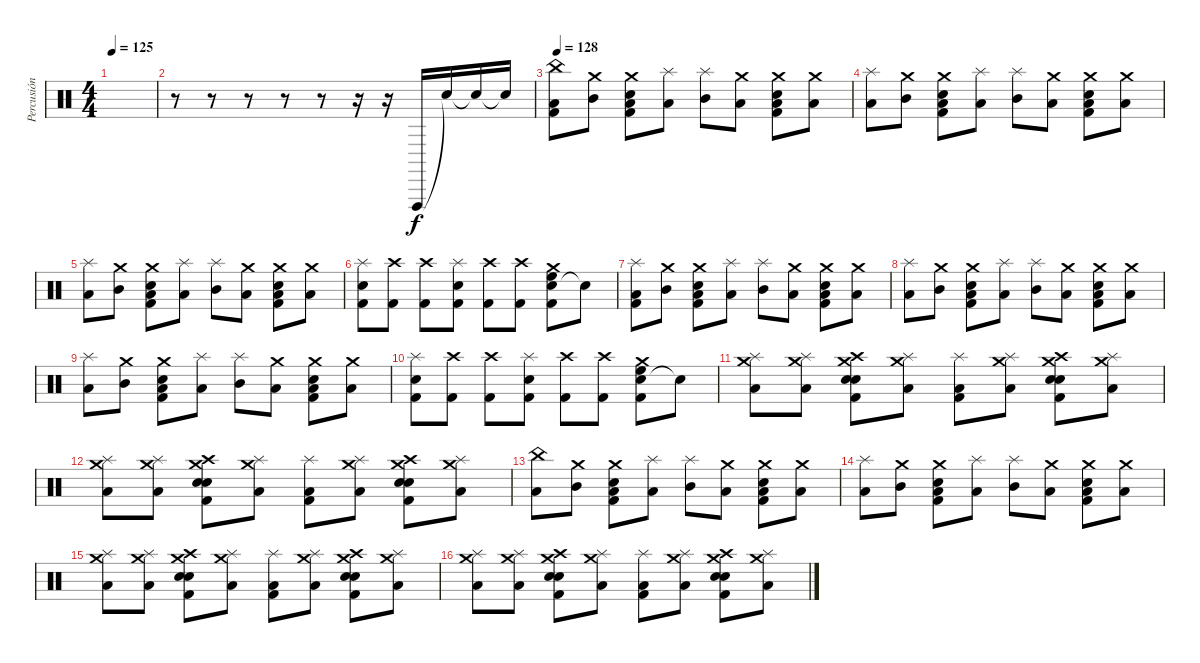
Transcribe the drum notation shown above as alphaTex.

\track ("Percusión" "Percusión") {instrument percussion}
\staff {score}
\articulation defaults
\ts (4 4)
\tempo 125
\clef neutral
\ks c
|
r.8 r.8 r.8 r.8 r.8 r.16 r.16 "Vibraslap (hit)".16{dy f} "Snare (hit)"{t}.16 "Snare (hit)"{t}.16 "Snare (hit)"{t}.16 |
\tempo 122
\tempo 128
("China (hit)" "Low Floor Tom (hit)" "Kick (hit) 2").8 ("Crash medium (hit)" "Mid Tom (hit)").8 ("Crash medium (hit)" "Low Floor Tom (hit)" "Electric Snare (hit)" "Kick (hit) 2").8 ("Splash (hit)" "Low Floor Tom (hit)").8 ("Splash (hit)" "Mid Tom (hit)").8 ("Crash medium (hit)" "Low Floor Tom (hit)").8 ("Crash medium (hit)" "Low Floor Tom (hit)" "Electric Snare (hit)" "Kick (hit) 2").8 ("Crash medium (hit)" "Low Floor Tom (hit)").8 |
("Splash (hit)" "Low Floor Tom (hit)").8 ("Crash medium (hit)" "Mid Tom (hit)").8 ("Crash medium (hit)" "Low Floor Tom (hit)" "Electric Snare (hit)" "Kick (hit) 2").8 ("Splash (hit)" "Low Floor Tom (hit)").8 ("Splash (hit)" "Mid Tom (hit)").8 ("Crash medium (hit)" "Low Floor Tom (hit)").8 ("Crash medium (hit)" "Low Floor Tom (hit)" "Electric Snare (hit)" "Kick (hit) 2").8 ("Crash medium (hit)" "Low Floor Tom (hit)").8 |
("Splash (hit)" "Low Floor Tom (hit)").8 ("Crash medium (hit)" "Mid Tom (hit)").8 ("Crash medium (hit)" "Low Floor Tom (hit)" "Electric Snare (hit)" "Kick (hit) 2").8 ("Splash (hit)" "Low Floor Tom (hit)").8 ("Splash (hit)" "Mid Tom (hit)").8 ("Crash medium (hit)" "Low Floor Tom (hit)").8 ("Crash medium (hit)" "Low Floor Tom (hit)" "Electric Snare (hit)" "Kick (hit) 2").8 ("Crash medium (hit)" "Low Floor Tom (hit)").8 |
("Electric Snare (hit)" "Kick (hit) 2" "Splash (hit)").8 ("Kick (hit) 2" "Crash high (hit)").8 ("Kick (hit) 2" "Crash high (hit)").8 ("Electric Snare (hit)" "Kick (hit) 2" "Splash (hit)").8 ("Kick (hit) 2" "Crash high (hit)").8 ("Kick (hit) 2" "Crash high (hit)").8 ("Electric Snare (hit)" "Kick (hit) 2" "Crash medium (hit)" "High Floor Tom (hit)").8 "Electric Snare (hit)"{t}.8 |
("Splash (hit)" "Low Floor Tom (hit)" "Kick (hit) 2").8 ("Crash medium (hit)" "Mid Tom (hit)").8 ("Crash medium (hit)" "Low Floor Tom (hit)" "Electric Snare (hit)" "Kick (hit) 2").8 ("Splash (hit)" "Low Floor Tom (hit)").8 ("Splash (hit)" "Mid Tom (hit)").8 ("Crash medium (hit)" "Low Floor Tom (hit)").8 ("Crash medium (hit)" "Low Floor Tom (hit)" "Electric Snare (hit)" "Kick (hit) 2").8 ("Crash medium (hit)" "Low Floor Tom (hit)").8 |
("Splash (hit)" "Low Floor Tom (hit)").8 ("Crash medium (hit)" "Mid Tom (hit)").8 ("Crash medium (hit)" "Low Floor Tom (hit)" "Electric Snare (hit)" "Kick (hit) 2").8 ("Splash (hit)" "Low Floor Tom (hit)").8 ("Splash (hit)" "Mid Tom (hit)").8 ("Crash medium (hit)" "Low Floor Tom (hit)").8 ("Crash medium (hit)" "Low Floor Tom (hit)" "Electric Snare (hit)" "Kick (hit) 2").8 ("Crash medium (hit)" "Low Floor Tom (hit)").8 |
("Splash (hit)" "Low Floor Tom (hit)").8 ("Crash medium (hit)" "Mid Tom (hit)").8 ("Crash medium (hit)" "Low Floor Tom (hit)" "Electric Snare (hit)" "Kick (hit) 2").8 ("Splash (hit)" "Low Floor Tom (hit)").8 ("Splash (hit)" "Mid Tom (hit)").8 ("Crash medium (hit)" "Low Floor Tom (hit)").8 ("Crash medium (hit)" "Low Floor Tom (hit)" "Electric Snare (hit)" "Kick (hit) 2").8 ("Crash medium (hit)" "Low Floor Tom (hit)").8 |
("Electric Snare (hit)" "Kick (hit) 2" "Splash (hit)").8 ("Kick (hit) 2" "Crash high (hit)").8 ("Kick (hit) 2" "Crash high (hit)").8 ("Electric Snare (hit)" "Kick (hit) 2" "Splash (hit)").8 ("Kick (hit) 2" "Crash high (hit)").8 ("Kick (hit) 2" "Crash high (hit)").8 ("Electric Snare (hit)" "Kick (hit) 2" "Crash medium (hit)" "High Floor Tom (hit)").8 "Electric Snare (hit)"{t}.8 |
("Splash (hit)" "Crash medium (hit)" "Low Floor Tom (hit)").8 ("Splash (hit)" "Crash medium (hit)" "Low Floor Tom (hit)").8 ("Crash high (hit)" "Crash medium (hit)" "Kick (hit) 2" "Electric Snare (hit)" "Snare (hit) 2").8 ("Splash (hit)" "Crash medium (hit)" "Low Floor Tom (hit)").8 ("Splash (hit)" "Kick (hit) 2" "Low Floor Tom (hit)").8 ("Splash (hit)" "Crash medium (hit)" "Low Floor Tom (hit)").8 ("Crash high (hit)" "Crash medium (hit)" "Kick (hit) 2" "Electric Snare (hit)" "Snare (hit) 2").8 ("Splash (hit)" "Crash medium (hit)" "Low Floor Tom (hit)").8 |
("Splash (hit)" "Crash medium (hit)" "Low Floor Tom (hit)").8 ("Splash (hit)" "Crash medium (hit)" "Low Floor Tom (hit)").8 ("Crash high (hit)" "Crash medium (hit)" "Kick (hit) 2" "Electric Snare (hit)" "Snare (hit) 2").8 ("Splash (hit)" "Crash medium (hit)" "Low Floor Tom (hit)").8 ("Splash (hit)" "Kick (hit) 2" "Low Floor Tom (hit)").8 ("Splash (hit)" "Crash medium (hit)" "Low Floor Tom (hit)").8 ("Crash high (hit)" "Crash medium (hit)" "Kick (hit) 2" "Electric Snare (hit)" "Snare (hit) 2").8 ("Splash (hit)" "Crash medium (hit)" "Low Floor Tom (hit)").8 |
("China (hit)" "Low Floor Tom (hit)").8 ("Crash medium (hit)" "Mid Tom (hit)").8 ("Crash medium (hit)" "Low Floor Tom (hit)" "Electric Snare (hit)" "Kick (hit) 2").8 ("Splash (hit)" "Low Floor Tom (hit)").8 ("Splash (hit)" "Mid Tom (hit)").8 ("Crash medium (hit)" "Low Floor Tom (hit)").8 ("Crash medium (hit)" "Low Floor Tom (hit)" "Electric Snare (hit)" "Kick (hit) 2").8 ("Crash medium (hit)" "Low Floor Tom (hit)").8 |
("Splash (hit)" "Low Floor Tom (hit)").8 ("Crash medium (hit)" "Mid Tom (hit)").8 ("Crash medium (hit)" "Low Floor Tom (hit)" "Electric Snare (hit)" "Kick (hit) 2").8 ("Splash (hit)" "Low Floor Tom (hit)").8 ("Splash (hit)" "Mid Tom (hit)").8 ("Crash medium (hit)" "Low Floor Tom (hit)").8 ("Crash medium (hit)" "Low Floor Tom (hit)" "Electric Snare (hit)" "Kick (hit) 2").8 ("Crash medium (hit)" "Low Floor Tom (hit)").8 |
("Splash (hit)" "Crash medium (hit)" "Low Floor Tom (hit)").8 ("Splash (hit)" "Crash medium (hit)" "Low Floor Tom (hit)").8 ("Crash high (hit)" "Crash medium (hit)" "Kick (hit) 2" "Electric Snare (hit)" "Snare (hit) 2").8 ("Splash (hit)" "Crash medium (hit)" "Low Floor Tom (hit)").8 ("Splash (hit)" "Kick (hit) 2" "Low Floor Tom (hit)").8 ("Splash (hit)" "Crash medium (hit)" "Low Floor Tom (hit)").8 ("Crash high (hit)" "Crash medium (hit)" "Kick (hit) 2" "Electric Snare (hit)" "Snare (hit) 2").8 ("Splash (hit)" "Crash medium (hit)" "Low Floor Tom (hit)").8 |
("Splash (hit)" "Crash medium (hit)" "Low Floor Tom (hit)").8 ("Splash (hit)" "Crash medium (hit)" "Low Floor Tom (hit)").8 ("Crash high (hit)" "Crash medium (hit)" "Kick (hit) 2" "Electric Snare (hit)" "Snare (hit) 2").8 ("Splash (hit)" "Crash medium (hit)" "Low Floor Tom (hit)").8 ("Splash (hit)" "Kick (hit) 2" "Low Floor Tom (hit)").8 ("Splash (hit)" "Crash medium (hit)" "Low Floor Tom (hit)").8 ("Crash high (hit)" "Crash medium (hit)" "Kick (hit) 2" "Electric Snare (hit)" "Snare (hit) 2").8 ("Splash (hit)" "Crash medium (hit)" "Low Floor Tom (hit)").8
